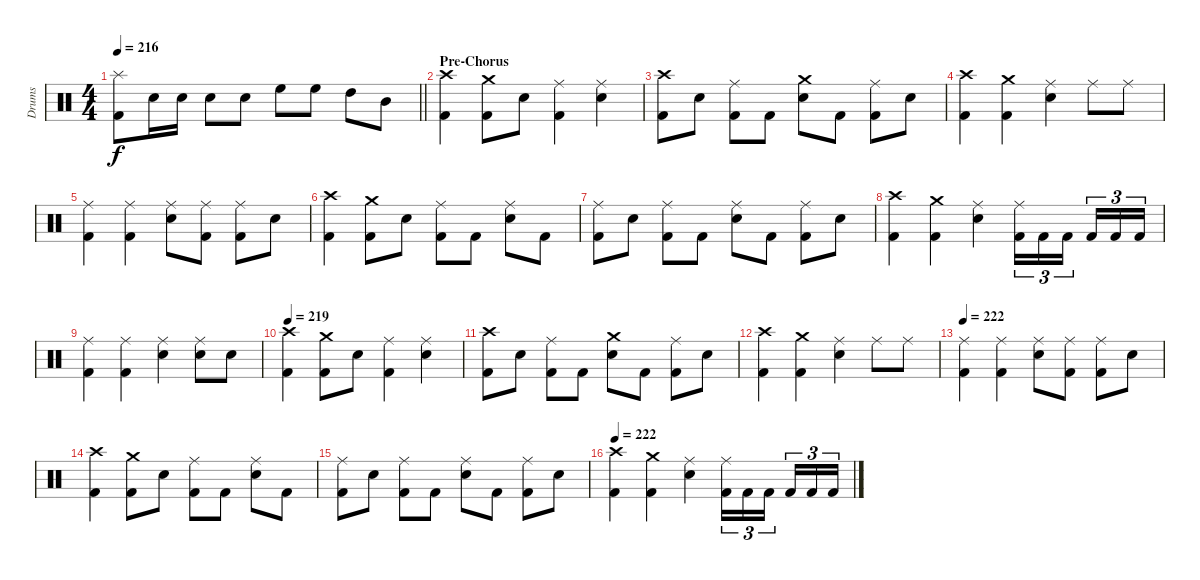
\track ("Drums" "Drums") {instrument percussion}
\staff {score}
\articulation defaults
\ts (4 4)
\tempo 216
\clef neutral
\barLineRight lightlight
\ks c
("Splash (hit)" "Kick (hit) 2").8{dy f} "Snare (hit) 2".16 "Snare (hit) 2".16 "Snare (hit) 2".8 "Snare (hit) 2".8 "High Floor Tom (hit)".8 "High Floor Tom (hit)".8 "High Tom (hit)".8 "Mid Tom (hit)".8 |
\section ("" "Pre-Chorus")
("Crash high (hit)" "Kick (hit) 2").4 ("Crash medium (hit)" "Kick (hit) 2").8 "Snare (hit) 2".8 ("Ride (middle)" "Kick (hit) 2").4 ("Ride (middle)" "Snare (hit) 2").4 |
("Crash high (hit)" "Kick (hit) 2").8 "Snare (hit) 2".8 ("Ride (middle)" "Kick (hit) 2").8 "Kick (hit) 2".8 ("Crash medium (hit)" "Snare (hit) 2").8 "Kick (hit) 2".8 ("Ride (middle)" "Kick (hit) 2").8 "Snare (hit) 2".8 |
("Crash high (hit)" "Kick (hit) 2").4 ("Crash medium (hit)" "Kick (hit) 2").4 ("Ride (middle)" "Snare (hit) 2").4 "Ride (middle)".8 "Ride (middle)".8 |
("Ride (middle)" "Kick (hit) 2").4 ("Ride (middle)" "Kick (hit) 2").4 ("Ride (middle)" "Snare (hit) 2").8 ("Ride (middle)" "Kick (hit) 2").8 ("Ride (middle)" "Kick (hit) 2").8 "Snare (hit) 2".8 |
("Crash high (hit)" "Kick (hit) 2").4 ("Crash medium (hit)" "Kick (hit) 2").8 "Snare (hit) 2".8 ("Ride (middle)" "Kick (hit) 2").8 "Kick (hit) 2".8 ("Ride (middle)" "Snare (hit) 2").8 "Kick (hit) 2".8 |
("Ride (middle)" "Kick (hit) 2").8 "Snare (hit) 2".8 ("Ride (middle)" "Kick (hit) 2").8 "Kick (hit) 2".8 ("Ride (middle)" "Snare (hit) 2").8 "Kick (hit) 2".8 ("Ride (middle)" "Kick (hit) 2").8 "Snare (hit) 2".8 |
("Crash high (hit)" "Kick (hit) 2").4 ("Crash medium (hit)" "Kick (hit) 2").4 ("Ride (middle)" "Snare (hit) 2").4 ("Ride (middle)" "Kick (hit) 2").16{tu (3 2)} "Kick (hit) 2".16{tu (3 2)} "Kick (hit) 2".16{tu (3 2) beam splitsecondary} "Kick (hit) 2".16{tu (3 2)} "Kick (hit) 2".16{tu (3 2)} "Kick (hit) 2".16{tu (3 2)} |
("Ride (middle)" "Kick (hit) 2").4 ("Ride (middle)" "Kick (hit) 2").4 ("Ride (middle)" "Snare (hit) 2").4 ("Ride (middle)" "Snare (hit) 2").8 "Snare (hit) 2".8 |
\tempo 219
("Crash high (hit)" "Kick (hit) 2").4 ("Crash medium (hit)" "Kick (hit) 2").8 "Snare (hit) 2".8 ("Ride (middle)" "Kick (hit) 2").4 ("Ride (middle)" "Snare (hit) 2").4 |
("Crash high (hit)" "Kick (hit) 2").8 "Snare (hit) 2".8 ("Ride (middle)" "Kick (hit) 2").8 "Kick (hit) 2".8 ("Crash medium (hit)" "Snare (hit) 2").8 "Kick (hit) 2".8 ("Ride (middle)" "Kick (hit) 2").8 "Snare (hit) 2".8 |
("Crash high (hit)" "Kick (hit) 2").4 ("Crash medium (hit)" "Kick (hit) 2").4 ("Ride (middle)" "Snare (hit) 2").4 "Ride (middle)".8 "Ride (middle)".8 |
\tempo 222
("Ride (middle)" "Kick (hit) 2").4 ("Ride (middle)" "Kick (hit) 2").4 ("Ride (middle)" "Snare (hit) 2").8 ("Ride (middle)" "Kick (hit) 2").8 ("Ride (middle)" "Kick (hit) 2").8 "Snare (hit) 2".8 |
("Crash high (hit)" "Kick (hit) 2").4 ("Crash medium (hit)" "Kick (hit) 2").8 "Snare (hit) 2".8 ("Ride (middle)" "Kick (hit) 2").8 "Kick (hit) 2".8 ("Ride (middle)" "Snare (hit) 2").8 "Kick (hit) 2".8 |
("Ride (middle)" "Kick (hit) 2").8 "Snare (hit) 2".8 ("Ride (middle)" "Kick (hit) 2").8 "Kick (hit) 2".8 ("Ride (middle)" "Snare (hit) 2").8 "Kick (hit) 2".8 ("Ride (middle)" "Kick (hit) 2").8 "Snare (hit) 2".8 |
\tempo 222
("Crash high (hit)" "Kick (hit) 2").4 ("Crash medium (hit)" "Kick (hit) 2").4 ("Ride (middle)" "Snare (hit) 2").4 ("Ride (middle)" "Kick (hit) 2").16{tu (3 2)} "Kick (hit) 2".16{tu (3 2)} "Kick (hit) 2".16{tu (3 2) beam splitsecondary} "Kick (hit) 2".16{tu (3 2)} "Kick (hit) 2".16{tu (3 2)} "Kick (hit) 2".16{tu (3 2)}
